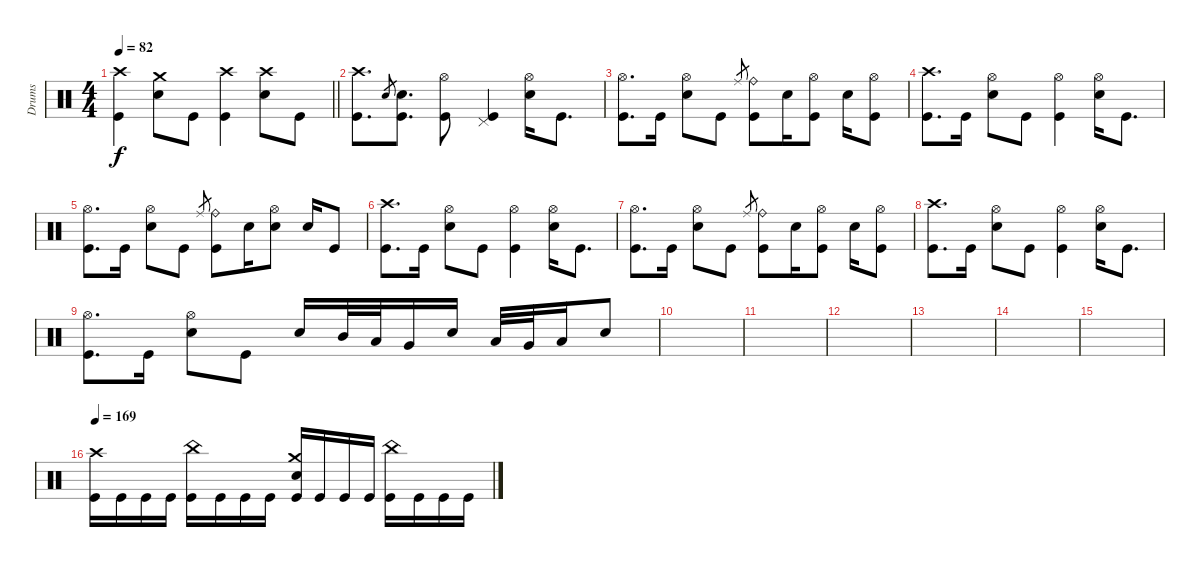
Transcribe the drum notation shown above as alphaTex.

\track ("Drums" "Drums") {instrument percussion}
\staff
\articulation defaults
\ts (4 4)
\tempo 82
\clef neutral
\barLineRight lightlight
\ks c
("Crash high (hit)" "Kick (hit)").4{dy f} ("Crash medium (hit)" "Electric Snare (hit)").8 "Kick (hit)".8 ("Crash high (hit)" "Kick (hit)").4 ("Crash high (hit)" "Electric Snare (hit)").8 "Kick (hit)".8 |
("Crash high (hit)" "Kick (hit)").8{d} "Electric Snare (hit)".8{gr} ("Electric Snare (hit)" "Kick (hit)").8{d} ("Hi-Hat (open)" "Kick (hit)").8 ("Pedal Hi-Hat (hit)" "Kick (hit)").4 ("Hi-Hat (open)" "Electric Snare (hit)").16 "Kick (hit)".8{d} |
("Hi-Hat (open)" "Kick (hit)").8{d} "Kick (hit)".16 ("Hi-Hat (open)" "Electric Snare (hit)").8 "Kick (hit)".8 "Ride (middle)".8{gr} ("Ride (bell)" "Kick (hit)").8 "Electric Snare (hit)".16 ("Hi-Hat (open)" "Kick (hit)").8 "Electric Snare (hit)".16 ("Hi-Hat (open)" "Kick (hit)").8 |
("Crash high (hit)" "Kick (hit)").8{d} "Kick (hit)".16 ("Hi-Hat (open)" "Electric Snare (hit)").8 "Kick (hit)".8 ("Hi-Hat (open)" "Kick (hit)").4 ("Hi-Hat (open)" "Electric Snare (hit)").16 "Kick (hit)".8{d} |
("Hi-Hat (open)" "Kick (hit)").8{d} "Kick (hit)".16 ("Hi-Hat (open)" "Electric Snare (hit)").8 "Kick (hit)".8 "Ride (middle)".8{gr} ("Ride (bell)" "Kick (hit)").8 "Electric Snare (hit)".16 ("Hi-Hat (open)" "Electric Snare (hit)").8 "Electric Snare (hit)".16 "Kick (hit)".8 |
("Crash high (hit)" "Kick (hit)").8{d} "Kick (hit)".16 ("Hi-Hat (open)" "Electric Snare (hit)").8 "Kick (hit)".8 ("Hi-Hat (open)" "Kick (hit)").4 ("Hi-Hat (open)" "Electric Snare (hit)").16 "Kick (hit)".8{d} |
("Hi-Hat (open)" "Kick (hit)").8{d} "Kick (hit)".16 ("Hi-Hat (open)" "Electric Snare (hit)").8 "Kick (hit)".8 "Ride (middle)".8{gr} ("Ride (bell)" "Kick (hit)").8 "Electric Snare (hit)".16 ("Hi-Hat (open)" "Kick (hit)").8 "Electric Snare (hit)".16 ("Hi-Hat (open)" "Kick (hit)").8 |
("Crash high (hit)" "Kick (hit)").8{d} "Kick (hit)".16 ("Hi-Hat (open)" "Electric Snare (hit)").8 "Kick (hit)".8 ("Hi-Hat (open)" "Kick (hit)").4 ("Hi-Hat (open)" "Electric Snare (hit)").16 "Kick (hit)".8{d} |
("Hi-Hat (open)" "Kick (hit)").8{d} "Kick (hit)".16 ("Hi-Hat (open)" "Electric Snare (hit)").8 "Kick (hit)".8 "Electric Snare (hit)".16 "Mid Tom (hit)".32 "Low Tom (hit)".32 "Very Low Tom (hit)".16 "Electric Snare (hit)".16 "Low Tom (hit)".32 "Very Low Tom (hit)".32 "Low Floor Tom (hit)".16 "Electric Snare (hit)".8 |
|
|
|
|
|
|
\tempo 169
("Crash high (hit)" "Kick (hit)").16 "Kick (hit)".16 "Kick (hit)".16 "Kick (hit)".16 ("China (hit)" "Kick (hit)").16 "Kick (hit)".16 "Kick (hit)".16 "Kick (hit)".16 ("Crash medium (hit)" "Electric Snare (hit)" "Kick (hit)").16 "Kick (hit)".16 "Kick (hit)".16 "Kick (hit)".16 ("China (hit)" "Kick (hit)").16 "Kick (hit)".16 "Kick (hit)".16 "Kick (hit)".16
